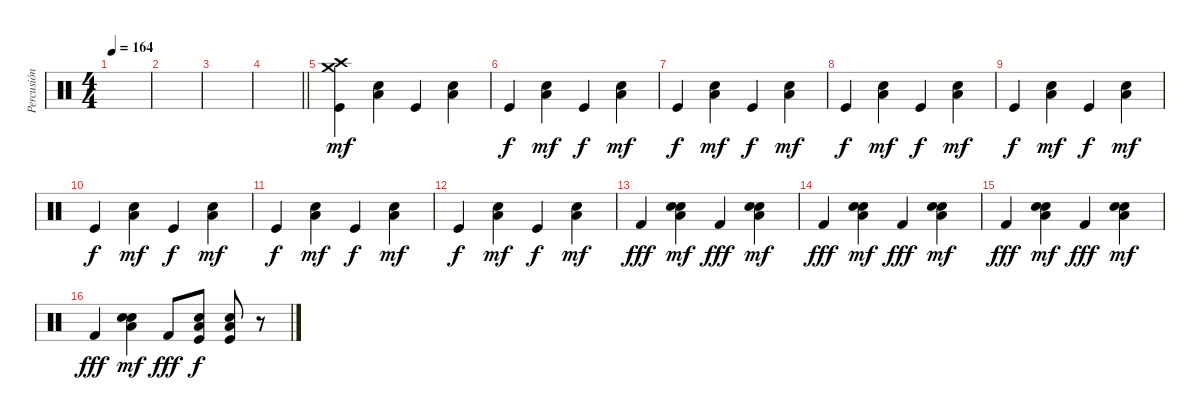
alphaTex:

\track ("Percusión" "Percusión") {instrument percussion}
\staff {score}
\articulation defaults
\ts (4 4)
\tempo 164
\clef neutral
\ks c
|
|
|
\barLineRight lightlight
|
("Crash medium (hit)" "Crash high (hit)" "Kick (hit)").4{dy mf} ("Hand Clap (hit)" "Low Floor Tom (hit)").4 "Kick (hit)".4 ("Hand Clap (hit)" "Low Floor Tom (hit)").4 |
"Kick (hit)".4{dy f} ("Hand Clap (hit)" "Low Floor Tom (hit)").4{dy mf} "Kick (hit)".4{dy f} ("Hand Clap (hit)" "Low Floor Tom (hit)").4{dy mf} |
"Kick (hit)".4{dy f} ("Hand Clap (hit)" "Low Floor Tom (hit)").4{dy mf} "Kick (hit)".4{dy f} ("Hand Clap (hit)" "Low Floor Tom (hit)").4{dy mf} |
"Kick (hit)".4{dy f} ("Hand Clap (hit)" "Low Floor Tom (hit)").4{dy mf} "Kick (hit)".4{dy f} ("Hand Clap (hit)" "Low Floor Tom (hit)").4{dy mf} |
"Kick (hit)".4{dy f} ("Hand Clap (hit)" "Low Floor Tom (hit)").4{dy mf} "Kick (hit)".4{dy f} ("Hand Clap (hit)" "Low Floor Tom (hit)").4{dy mf} |
"Kick (hit)".4{dy f} ("Hand Clap (hit)" "Low Floor Tom (hit)").4{dy mf} "Kick (hit)".4{dy f} ("Hand Clap (hit)" "Low Floor Tom (hit)").4{dy mf} |
"Kick (hit)".4{dy f} ("Hand Clap (hit)" "Low Floor Tom (hit)").4{dy mf} "Kick (hit)".4{dy f} ("Hand Clap (hit)" "Low Floor Tom (hit)").4{dy mf} |
"Kick (hit)".4{dy f} ("Hand Clap (hit)" "Low Floor Tom (hit)").4{dy mf} "Kick (hit)".4{dy f} ("Hand Clap (hit)" "Low Floor Tom (hit)").4{dy mf} |
"Kick (hit) 2".4{dy fff} ("Hand Clap (hit)" "Low Floor Tom (hit)" "Snare (hit) 2").4{dy mf} "Kick (hit) 2".4{dy fff} ("Hand Clap (hit)" "Low Floor Tom (hit)" "Snare (hit) 2").4{dy mf} |
"Kick (hit) 2".4{dy fff} ("Hand Clap (hit)" "Low Floor Tom (hit)" "Snare (hit) 2").4{dy mf} "Kick (hit) 2".4{dy fff} ("Hand Clap (hit)" "Low Floor Tom (hit)" "Snare (hit) 2").4{dy mf} |
"Kick (hit) 2".4{dy fff} ("Hand Clap (hit)" "Low Floor Tom (hit)" "Snare (hit) 2").4{dy mf} "Kick (hit) 2".4{dy fff} ("Hand Clap (hit)" "Low Floor Tom (hit)" "Snare (hit) 2").4{dy mf} |
"Kick (hit) 2".4{dy fff} ("Hand Clap (hit)" "Low Floor Tom (hit)" "Snare (hit) 2").4{dy mf} "Kick (hit) 2".8{dy fff} ("Low Floor Tom (hit)" "Electric Snare (hit)" "Kick (hit)").8{dy f} ("Low Floor Tom (hit)" "Electric Snare (hit)" "Kick (hit)").8 r.8
